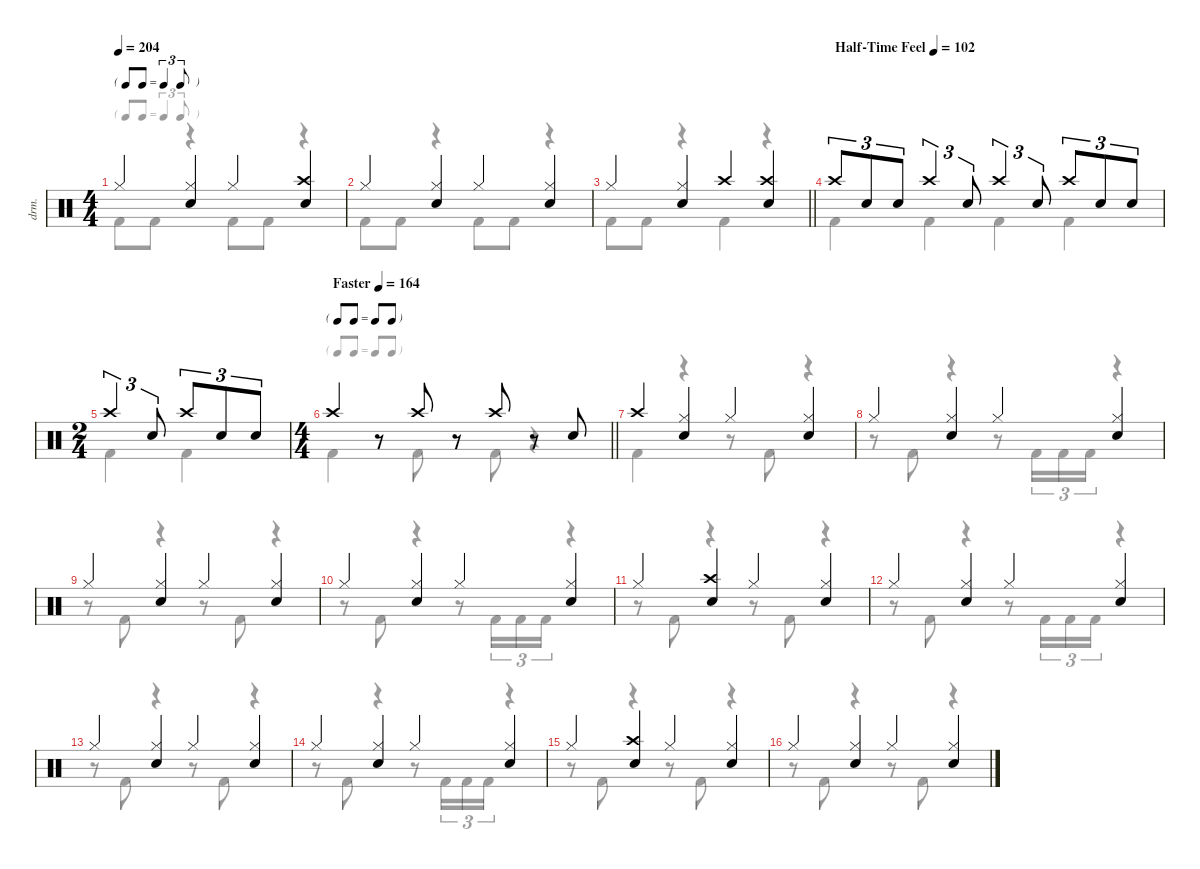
\defaultSystemsLayout 4
\hideDynamics
\bracketExtendMode nobrackets
\otherSystemsTrackNameOrientation horizontal
\track ("Lars Ulrich" "drm.") {defaultSystemsLayout 8 instrument percussion}
\staff {score}
\articulation defaults
\voice
\ts (4 4)
\tf triplet8th
\tempo 204
\clef neutral
\ks aminor "Hi-Hat (closed)".4{dy f beam Up}
("Hi-Hat (closed)" "Snare (hit) 2").4{beam Up} "Hi-Hat (closed)".4{beam Up} ("Crash high (hit)" "Snare (hit) 2").4{beam Up} |
"Hi-Hat (closed)".4{beam Up} ("Hi-Hat (closed)" "Snare (hit) 2").4{beam Up} "Hi-Hat (closed)".4{beam Up} ("Hi-Hat (closed)" "Snare (hit) 2").4{beam Up} |
\barLineRight lightlight "Hi-Hat (closed)".4{beam Up}
("Hi-Hat (closed)" "Snare (hit) 2").4{beam Up} "Crash high (hit)".4{beam Up} ("Crash high (hit)" "Snare (hit) 2").4{beam Up} |
\tempo (102 "Half-Time Feel")
"Crash high (hit)".8{tu (3 2) beam Up} "Snare (hit) 2".8{tu (3 2) beam Up} "Snare (hit) 2".8{tu (3 2) beam Up} "Crash high (hit)".4{tu (3 2) beam Up} "Snare (hit) 2".8{tu (3 2) beam Up} "Crash high (hit)".4{tu (3 2) beam Up} "Snare (hit) 2".8{tu (3 2) beam Up} "Crash high (hit)".8{tu (3 2) beam Up} "Snare (hit) 2".8{tu (3 2) beam Up} "Snare (hit) 2".8{tu (3 2) beam Up} |
\ts (2 4)
\beaming (8 2 2)
"Crash high (hit)".4{tu (3 2) beam Up} "Snare (hit) 2".8{tu (3 2) beam Up} "Crash high (hit)".8{tu (3 2) beam Up} "Snare (hit) 2".8{tu (3 2) beam Up} "Snare (hit) 2".8{tu (3 2) beam Up} |
\ts (4 4)
\beaming (8 2 2 2 2)
\tf none
\tempo (164 "Faster")
\barLineRight lightlight "Crash high (hit)".4{beam Up}
r.8{beam Up} "Crash high (hit)".8{beam Up} r.8{beam Up} "Crash high (hit)".8{beam Up} r.8{beam Up} "Snare (hit) 2".8{beam Up} |
"Crash high (hit)".4{beam Up} ("Hi-Hat (closed)" "Snare (hit) 2").4{beam Up} "Hi-Hat (closed)".4{beam Up} ("Hi-Hat (closed)" "Snare (hit) 2").4{beam Up} |
"Hi-Hat (closed)".4{beam Up} ("Hi-Hat (closed)" "Snare (hit) 2").4{beam Up} "Hi-Hat (closed)".4{beam Up} ("Hi-Hat (closed)" "Snare (hit) 2").4{beam Up} |
"Hi-Hat (closed)".4{beam Up} ("Hi-Hat (closed)" "Snare (hit) 2").4{beam Up} "Hi-Hat (closed)".4{beam Up} ("Hi-Hat (closed)" "Snare (hit) 2").4{beam Up} |
"Hi-Hat (closed)".4{beam Up} ("Hi-Hat (closed)" "Snare (hit) 2").4{beam Up} "Hi-Hat (closed)".4{beam Up} ("Hi-Hat (closed)" "Snare (hit) 2").4{beam Up} |
"Hi-Hat (closed)".4{beam Up} ("Crash high (hit)" "Snare (hit) 2").4{beam Up} "Hi-Hat (closed)".4{beam Up} ("Hi-Hat (closed)" "Snare (hit) 2").4{beam Up} |
"Hi-Hat (closed)".4{beam Up} ("Hi-Hat (closed)" "Snare (hit) 2").4{beam Up} "Hi-Hat (closed)".4{beam Up} ("Hi-Hat (closed)" "Snare (hit) 2").4{beam Up} |
"Hi-Hat (closed)".4{beam Up} ("Hi-Hat (closed)" "Snare (hit) 2").4{beam Up} "Hi-Hat (closed)".4{beam Up} ("Hi-Hat (closed)" "Snare (hit) 2").4{beam Up} |
"Hi-Hat (closed)".4{beam Up} ("Hi-Hat (closed)" "Snare (hit) 2").4{beam Up} "Hi-Hat (closed)".4{beam Up} ("Hi-Hat (closed)" "Snare (hit) 2").4{beam Up} |
"Hi-Hat (closed)".4{beam Up} ("Crash high (hit)" "Snare (hit) 2").4{beam Up} "Hi-Hat (closed)".4{beam Up} ("Hi-Hat (closed)" "Snare (hit) 2").4{beam Up} |
"Hi-Hat (closed)".4{beam Up} ("Hi-Hat (closed)" "Snare (hit) 2").4{beam Up} "Hi-Hat (closed)".4{beam Up} ("Hi-Hat (closed)" "Snare (hit) 2").4{beam Up}
\voice
\clef neutral
\ottava regular
\simile none
\ks aminor "Kick (hit) 2".8{dy f beam Down} "Kick (hit) 2".8{beam Down}
r.4{beam Down} "Kick (hit) 2".8{beam Down} "Kick (hit) 2".8{beam Down} r.4{beam Down} |
"Kick (hit) 2".8{beam Down} "Kick (hit) 2".8{beam Down} r.4{beam Down} "Kick (hit) 2".8{beam Down} "Kick (hit) 2".8{beam Down} r.4{beam Down} |
\barLineRight lightlight "Kick (hit) 2".8{beam Down} "Kick (hit) 2".8{beam Down}
r.4{beam Down} "Kick (hit) 2".4{beam Down} r.4{beam Down} |
"Kick (hit) 2".4{beam Down} "Kick (hit) 2".4{beam Down} "Kick (hit) 2".4{beam Down} "Kick (hit) 2".4{beam Down} |
"Kick (hit) 2".4{beam Down} "Kick (hit) 2".4{beam Down} |
\barLineRight lightlight "Kick (hit) 2".4{beam Down}
r.8{beam Down} "Kick (hit) 2".8{beam Down} r.8{beam Down} "Kick (hit) 2".8{beam Down} r.4{beam Down} |
"Kick (hit) 2".4{beam Down} r.4{beam Down} r.8{beam Down} "Kick (hit) 2".8{beam Down} r.4{beam Down} |
r.8{beam Down} "Kick (hit) 2".8{beam Down} r.4{beam Down} r.8{beam Down} "Kick (hit) 2".16{tu (3 2) beam Down} "Kick (hit) 2".16{tu (3 2) beam Down} "Kick (hit) 2".16{tu (3 2) beam Down} r.4{beam Down} |
r.8{beam Down} "Kick (hit) 2".8{beam Down} r.4{beam Down} r.8{beam Down} "Kick (hit) 2".8{beam Down} r.4{beam Down} |
r.8{beam Down} "Kick (hit) 2".8{beam Down} r.4{beam Down} r.8{beam Down} "Kick (hit) 2".16{tu (3 2) beam Down} "Kick (hit) 2".16{tu (3 2) beam Down} "Kick (hit) 2".16{tu (3 2) beam Down} r.4{beam Down} |
r.8{beam Down} "Kick (hit) 2".8{beam Down} r.4{beam Down} r.8{beam Down} "Kick (hit) 2".8{beam Down} r.4{beam Down} |
r.8{beam Down} "Kick (hit) 2".8{beam Down} r.4{beam Down} r.8{beam Down} "Kick (hit) 2".16{tu (3 2) beam Down} "Kick (hit) 2".16{tu (3 2) beam Down} "Kick (hit) 2".16{tu (3 2) beam Down} r.4{beam Down} |
r.8{beam Down} "Kick (hit) 2".8{beam Down} r.4{beam Down} r.8{beam Down} "Kick (hit) 2".8{beam Down} r.4{beam Down} |
r.8{beam Down} "Kick (hit) 2".8{beam Down} r.4{beam Down} r.8{beam Down} "Kick (hit) 2".16{tu (3 2) beam Down} "Kick (hit) 2".16{tu (3 2) beam Down} "Kick (hit) 2".16{tu (3 2) beam Down} r.4{beam Down} |
r.8{beam Down} "Kick (hit) 2".8{beam Down} r.4{beam Down} r.8{beam Down} "Kick (hit) 2".8{beam Down} r.4{beam Down} |
r.8{beam Down} "Kick (hit) 2".8{beam Down} r.4{beam Down} r.8{beam Down} "Kick (hit) 2".8{beam Down} r.4{beam Down}
